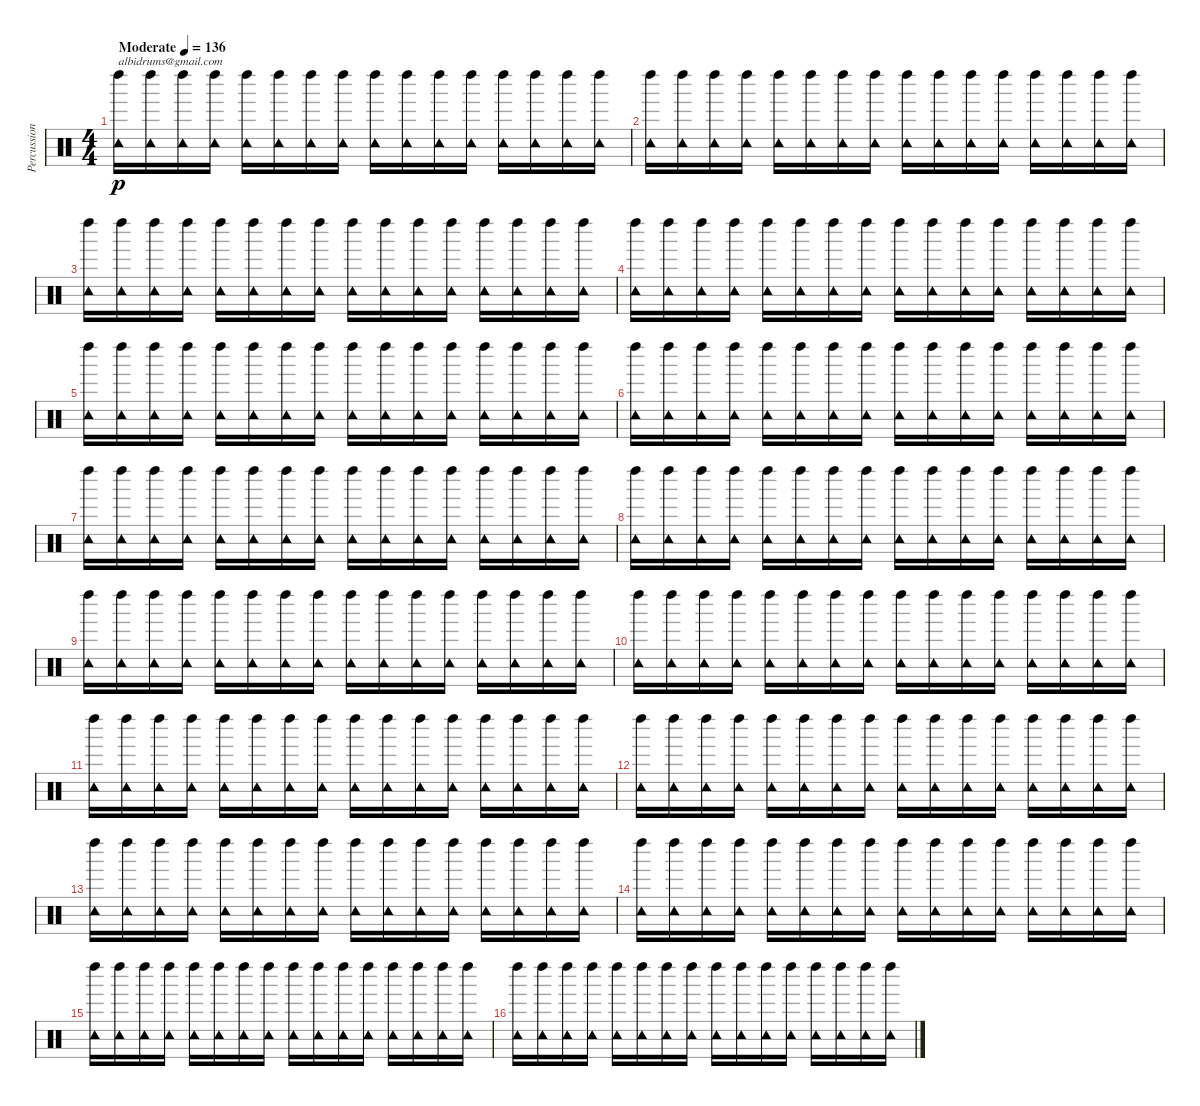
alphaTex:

\track ("Percussion" "Percussion") {instrument percussion}
\staff {score}
\articulation defaults
\ts (4 4)
\tempo (136 "Moderate")
\clef neutral
\ks c
("Tambourine (hit)" "Left Maraca (hit)").16{txt "albidrums@gmail.com" dy p} ("Tambourine (hit)" "Left Maraca (hit)").16 ("Tambourine (hit)" "Left Maraca (hit)").16 ("Tambourine (hit)" "Left Maraca (hit)").16 ("Tambourine (hit)" "Left Maraca (hit)").16 ("Tambourine (hit)" "Left Maraca (hit)").16 ("Tambourine (hit)" "Left Maraca (hit)").16 ("Tambourine (hit)" "Left Maraca (hit)").16 ("Tambourine (hit)" "Left Maraca (hit)").16 ("Tambourine (hit)" "Left Maraca (hit)").16 ("Tambourine (hit)" "Left Maraca (hit)").16 ("Tambourine (hit)" "Left Maraca (hit)").16 ("Tambourine (hit)" "Left Maraca (hit)").16 ("Tambourine (hit)" "Left Maraca (hit)").16 ("Tambourine (hit)" "Left Maraca (hit)").16 ("Tambourine (hit)" "Left Maraca (hit)").16 |
("Tambourine (hit)" "Left Maraca (hit)").16 ("Tambourine (hit)" "Left Maraca (hit)").16 ("Tambourine (hit)" "Left Maraca (hit)").16 ("Tambourine (hit)" "Left Maraca (hit)").16 ("Tambourine (hit)" "Left Maraca (hit)").16 ("Tambourine (hit)" "Left Maraca (hit)").16 ("Tambourine (hit)" "Left Maraca (hit)").16 ("Tambourine (hit)" "Left Maraca (hit)").16 ("Tambourine (hit)" "Left Maraca (hit)").16 ("Tambourine (hit)" "Left Maraca (hit)").16 ("Tambourine (hit)" "Left Maraca (hit)").16 ("Tambourine (hit)" "Left Maraca (hit)").16 ("Tambourine (hit)" "Left Maraca (hit)").16 ("Tambourine (hit)" "Left Maraca (hit)").16 ("Tambourine (hit)" "Left Maraca (hit)").16 ("Tambourine (hit)" "Left Maraca (hit)").16 |
("Tambourine (hit)" "Left Maraca (hit)").16 ("Tambourine (hit)" "Left Maraca (hit)").16 ("Tambourine (hit)" "Left Maraca (hit)").16 ("Tambourine (hit)" "Left Maraca (hit)").16 ("Tambourine (hit)" "Left Maraca (hit)").16 ("Tambourine (hit)" "Left Maraca (hit)").16 ("Tambourine (hit)" "Left Maraca (hit)").16 ("Tambourine (hit)" "Left Maraca (hit)").16 ("Tambourine (hit)" "Left Maraca (hit)").16 ("Tambourine (hit)" "Left Maraca (hit)").16 ("Tambourine (hit)" "Left Maraca (hit)").16 ("Tambourine (hit)" "Left Maraca (hit)").16 ("Tambourine (hit)" "Left Maraca (hit)").16 ("Tambourine (hit)" "Left Maraca (hit)").16 ("Tambourine (hit)" "Left Maraca (hit)").16 ("Tambourine (hit)" "Left Maraca (hit)").16 |
("Tambourine (hit)" "Left Maraca (hit)").16 ("Tambourine (hit)" "Left Maraca (hit)").16 ("Tambourine (hit)" "Left Maraca (hit)").16 ("Tambourine (hit)" "Left Maraca (hit)").16 ("Tambourine (hit)" "Left Maraca (hit)").16 ("Tambourine (hit)" "Left Maraca (hit)").16 ("Tambourine (hit)" "Left Maraca (hit)").16 ("Tambourine (hit)" "Left Maraca (hit)").16 ("Tambourine (hit)" "Left Maraca (hit)").16 ("Tambourine (hit)" "Left Maraca (hit)").16 ("Tambourine (hit)" "Left Maraca (hit)").16 ("Tambourine (hit)" "Left Maraca (hit)").16 ("Tambourine (hit)" "Left Maraca (hit)").16 ("Tambourine (hit)" "Left Maraca (hit)").16 ("Tambourine (hit)" "Left Maraca (hit)").16 ("Tambourine (hit)" "Left Maraca (hit)").16 |
("Tambourine (hit)" "Left Maraca (hit)").16 ("Tambourine (hit)" "Left Maraca (hit)").16 ("Tambourine (hit)" "Left Maraca (hit)").16 ("Tambourine (hit)" "Left Maraca (hit)").16 ("Tambourine (hit)" "Left Maraca (hit)").16 ("Tambourine (hit)" "Left Maraca (hit)").16 ("Tambourine (hit)" "Left Maraca (hit)").16 ("Tambourine (hit)" "Left Maraca (hit)").16 ("Tambourine (hit)" "Left Maraca (hit)").16 ("Tambourine (hit)" "Left Maraca (hit)").16 ("Tambourine (hit)" "Left Maraca (hit)").16 ("Tambourine (hit)" "Left Maraca (hit)").16 ("Tambourine (hit)" "Left Maraca (hit)").16 ("Tambourine (hit)" "Left Maraca (hit)").16 ("Tambourine (hit)" "Left Maraca (hit)").16 ("Tambourine (hit)" "Left Maraca (hit)").16 |
("Tambourine (hit)" "Left Maraca (hit)").16 ("Tambourine (hit)" "Left Maraca (hit)").16 ("Tambourine (hit)" "Left Maraca (hit)").16 ("Tambourine (hit)" "Left Maraca (hit)").16 ("Tambourine (hit)" "Left Maraca (hit)").16 ("Tambourine (hit)" "Left Maraca (hit)").16 ("Tambourine (hit)" "Left Maraca (hit)").16 ("Tambourine (hit)" "Left Maraca (hit)").16 ("Tambourine (hit)" "Left Maraca (hit)").16 ("Tambourine (hit)" "Left Maraca (hit)").16 ("Tambourine (hit)" "Left Maraca (hit)").16 ("Tambourine (hit)" "Left Maraca (hit)").16 ("Tambourine (hit)" "Left Maraca (hit)").16 ("Tambourine (hit)" "Left Maraca (hit)").16 ("Tambourine (hit)" "Left Maraca (hit)").16 ("Tambourine (hit)" "Left Maraca (hit)").16 |
("Tambourine (hit)" "Left Maraca (hit)").16 ("Tambourine (hit)" "Left Maraca (hit)").16 ("Tambourine (hit)" "Left Maraca (hit)").16 ("Tambourine (hit)" "Left Maraca (hit)").16 ("Tambourine (hit)" "Left Maraca (hit)").16 ("Tambourine (hit)" "Left Maraca (hit)").16 ("Tambourine (hit)" "Left Maraca (hit)").16 ("Tambourine (hit)" "Left Maraca (hit)").16 ("Tambourine (hit)" "Left Maraca (hit)").16 ("Tambourine (hit)" "Left Maraca (hit)").16 ("Tambourine (hit)" "Left Maraca (hit)").16 ("Tambourine (hit)" "Left Maraca (hit)").16 ("Tambourine (hit)" "Left Maraca (hit)").16 ("Tambourine (hit)" "Left Maraca (hit)").16 ("Tambourine (hit)" "Left Maraca (hit)").16 ("Tambourine (hit)" "Left Maraca (hit)").16 |
("Tambourine (hit)" "Left Maraca (hit)").16 ("Tambourine (hit)" "Left Maraca (hit)").16 ("Tambourine (hit)" "Left Maraca (hit)").16 ("Tambourine (hit)" "Left Maraca (hit)").16 ("Tambourine (hit)" "Left Maraca (hit)").16 ("Tambourine (hit)" "Left Maraca (hit)").16 ("Tambourine (hit)" "Left Maraca (hit)").16 ("Tambourine (hit)" "Left Maraca (hit)").16 ("Tambourine (hit)" "Left Maraca (hit)").16 ("Tambourine (hit)" "Left Maraca (hit)").16 ("Tambourine (hit)" "Left Maraca (hit)").16 ("Tambourine (hit)" "Left Maraca (hit)").16 ("Tambourine (hit)" "Left Maraca (hit)").16 ("Tambourine (hit)" "Left Maraca (hit)").16 ("Tambourine (hit)" "Left Maraca (hit)").16 ("Tambourine (hit)" "Left Maraca (hit)").16 |
("Tambourine (hit)" "Left Maraca (hit)").16 ("Tambourine (hit)" "Left Maraca (hit)").16 ("Tambourine (hit)" "Left Maraca (hit)").16 ("Tambourine (hit)" "Left Maraca (hit)").16 ("Tambourine (hit)" "Left Maraca (hit)").16 ("Tambourine (hit)" "Left Maraca (hit)").16 ("Tambourine (hit)" "Left Maraca (hit)").16 ("Tambourine (hit)" "Left Maraca (hit)").16 ("Tambourine (hit)" "Left Maraca (hit)").16 ("Tambourine (hit)" "Left Maraca (hit)").16 ("Tambourine (hit)" "Left Maraca (hit)").16 ("Tambourine (hit)" "Left Maraca (hit)").16 ("Tambourine (hit)" "Left Maraca (hit)").16 ("Tambourine (hit)" "Left Maraca (hit)").16 ("Tambourine (hit)" "Left Maraca (hit)").16 ("Tambourine (hit)" "Left Maraca (hit)").16 |
("Tambourine (hit)" "Left Maraca (hit)").16 ("Tambourine (hit)" "Left Maraca (hit)").16 ("Tambourine (hit)" "Left Maraca (hit)").16 ("Tambourine (hit)" "Left Maraca (hit)").16 ("Tambourine (hit)" "Left Maraca (hit)").16 ("Tambourine (hit)" "Left Maraca (hit)").16 ("Tambourine (hit)" "Left Maraca (hit)").16 ("Tambourine (hit)" "Left Maraca (hit)").16 ("Tambourine (hit)" "Left Maraca (hit)").16 ("Tambourine (hit)" "Left Maraca (hit)").16 ("Tambourine (hit)" "Left Maraca (hit)").16 ("Tambourine (hit)" "Left Maraca (hit)").16 ("Tambourine (hit)" "Left Maraca (hit)").16 ("Tambourine (hit)" "Left Maraca (hit)").16 ("Tambourine (hit)" "Left Maraca (hit)").16 ("Tambourine (hit)" "Left Maraca (hit)").16 |
("Tambourine (hit)" "Left Maraca (hit)").16 ("Tambourine (hit)" "Left Maraca (hit)").16 ("Tambourine (hit)" "Left Maraca (hit)").16 ("Tambourine (hit)" "Left Maraca (hit)").16 ("Tambourine (hit)" "Left Maraca (hit)").16 ("Tambourine (hit)" "Left Maraca (hit)").16 ("Tambourine (hit)" "Left Maraca (hit)").16 ("Tambourine (hit)" "Left Maraca (hit)").16 ("Tambourine (hit)" "Left Maraca (hit)").16 ("Tambourine (hit)" "Left Maraca (hit)").16 ("Tambourine (hit)" "Left Maraca (hit)").16 ("Tambourine (hit)" "Left Maraca (hit)").16 ("Tambourine (hit)" "Left Maraca (hit)").16 ("Tambourine (hit)" "Left Maraca (hit)").16 ("Tambourine (hit)" "Left Maraca (hit)").16 ("Tambourine (hit)" "Left Maraca (hit)").16 |
("Tambourine (hit)" "Left Maraca (hit)").16 ("Tambourine (hit)" "Left Maraca (hit)").16 ("Tambourine (hit)" "Left Maraca (hit)").16 ("Tambourine (hit)" "Left Maraca (hit)").16 ("Tambourine (hit)" "Left Maraca (hit)").16 ("Tambourine (hit)" "Left Maraca (hit)").16 ("Tambourine (hit)" "Left Maraca (hit)").16 ("Tambourine (hit)" "Left Maraca (hit)").16 ("Tambourine (hit)" "Left Maraca (hit)").16 ("Tambourine (hit)" "Left Maraca (hit)").16 ("Tambourine (hit)" "Left Maraca (hit)").16 ("Tambourine (hit)" "Left Maraca (hit)").16 ("Tambourine (hit)" "Left Maraca (hit)").16 ("Tambourine (hit)" "Left Maraca (hit)").16 ("Tambourine (hit)" "Left Maraca (hit)").16 ("Tambourine (hit)" "Left Maraca (hit)").16 |
("Tambourine (hit)" "Left Maraca (hit)").16 ("Tambourine (hit)" "Left Maraca (hit)").16 ("Tambourine (hit)" "Left Maraca (hit)").16 ("Tambourine (hit)" "Left Maraca (hit)").16 ("Tambourine (hit)" "Left Maraca (hit)").16 ("Tambourine (hit)" "Left Maraca (hit)").16 ("Tambourine (hit)" "Left Maraca (hit)").16 ("Tambourine (hit)" "Left Maraca (hit)").16 ("Tambourine (hit)" "Left Maraca (hit)").16 ("Tambourine (hit)" "Left Maraca (hit)").16 ("Tambourine (hit)" "Left Maraca (hit)").16 ("Tambourine (hit)" "Left Maraca (hit)").16 ("Tambourine (hit)" "Left Maraca (hit)").16 ("Tambourine (hit)" "Left Maraca (hit)").16 ("Tambourine (hit)" "Left Maraca (hit)").16 ("Tambourine (hit)" "Left Maraca (hit)").16 |
("Tambourine (hit)" "Left Maraca (hit)").16 ("Tambourine (hit)" "Left Maraca (hit)").16 ("Tambourine (hit)" "Left Maraca (hit)").16 ("Tambourine (hit)" "Left Maraca (hit)").16 ("Tambourine (hit)" "Left Maraca (hit)").16 ("Tambourine (hit)" "Left Maraca (hit)").16 ("Tambourine (hit)" "Left Maraca (hit)").16 ("Tambourine (hit)" "Left Maraca (hit)").16 ("Tambourine (hit)" "Left Maraca (hit)").16 ("Tambourine (hit)" "Left Maraca (hit)").16 ("Tambourine (hit)" "Left Maraca (hit)").16 ("Tambourine (hit)" "Left Maraca (hit)").16 ("Tambourine (hit)" "Left Maraca (hit)").16 ("Tambourine (hit)" "Left Maraca (hit)").16 ("Tambourine (hit)" "Left Maraca (hit)").16 ("Tambourine (hit)" "Left Maraca (hit)").16 |
("Tambourine (hit)" "Left Maraca (hit)").16 ("Tambourine (hit)" "Left Maraca (hit)").16 ("Tambourine (hit)" "Left Maraca (hit)").16 ("Tambourine (hit)" "Left Maraca (hit)").16 ("Tambourine (hit)" "Left Maraca (hit)").16 ("Tambourine (hit)" "Left Maraca (hit)").16 ("Tambourine (hit)" "Left Maraca (hit)").16 ("Tambourine (hit)" "Left Maraca (hit)").16 ("Tambourine (hit)" "Left Maraca (hit)").16 ("Tambourine (hit)" "Left Maraca (hit)").16 ("Tambourine (hit)" "Left Maraca (hit)").16 ("Tambourine (hit)" "Left Maraca (hit)").16 ("Tambourine (hit)" "Left Maraca (hit)").16 ("Tambourine (hit)" "Left Maraca (hit)").16 ("Tambourine (hit)" "Left Maraca (hit)").16 ("Tambourine (hit)" "Left Maraca (hit)").16 |
("Tambourine (hit)" "Left Maraca (hit)").16 ("Tambourine (hit)" "Left Maraca (hit)").16 ("Tambourine (hit)" "Left Maraca (hit)").16 ("Tambourine (hit)" "Left Maraca (hit)").16 ("Tambourine (hit)" "Left Maraca (hit)").16 ("Tambourine (hit)" "Left Maraca (hit)").16 ("Tambourine (hit)" "Left Maraca (hit)").16 ("Tambourine (hit)" "Left Maraca (hit)").16 ("Tambourine (hit)" "Left Maraca (hit)").16 ("Tambourine (hit)" "Left Maraca (hit)").16 ("Tambourine (hit)" "Left Maraca (hit)").16 ("Tambourine (hit)" "Left Maraca (hit)").16 ("Tambourine (hit)" "Left Maraca (hit)").16 ("Tambourine (hit)" "Left Maraca (hit)").16 ("Tambourine (hit)" "Left Maraca (hit)").16 ("Tambourine (hit)" "Left Maraca (hit)").16
